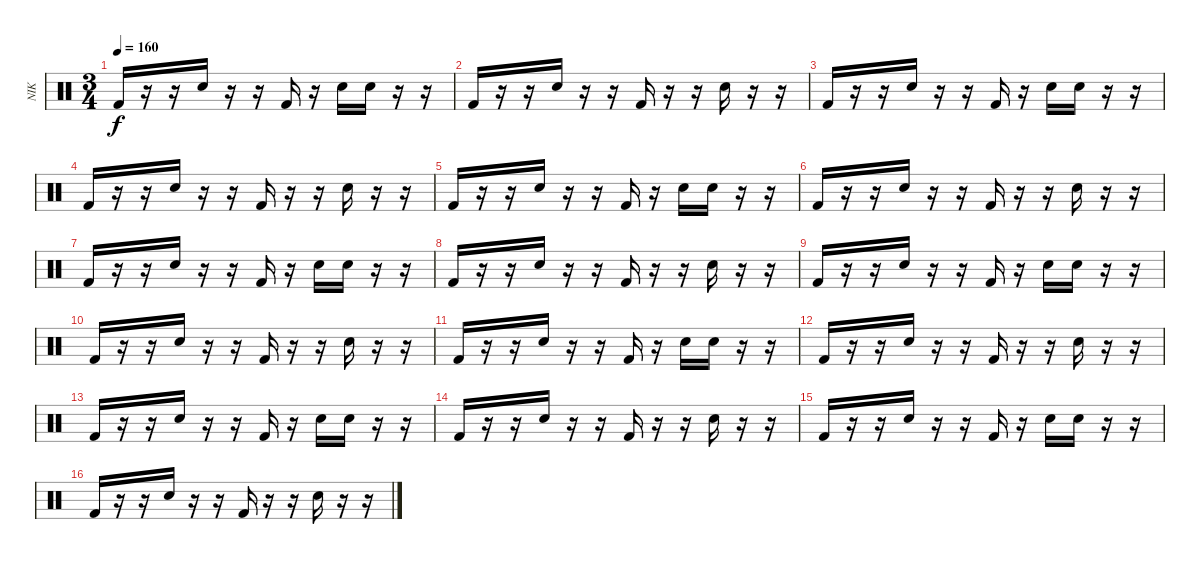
\track ("NIK" "NIK") {instrument percussion}
\staff {score}
\articulation defaults
\ts (3 4)
\tempo 160
\clef neutral
\ks c "Kick (hit) 2".16{dy f}
r.16 r.16 "Snare (hit) 2".16 r.16 r.16 "Kick (hit) 2".16 r.16 "Snare (hit) 2".16 "Snare (hit) 2".16 r.16 r.16 |
"Kick (hit) 2".16 r.16 r.16 "Snare (hit) 2".16 r.16 r.16 "Kick (hit) 2".16 r.16 r.16 "Snare (hit) 2".16 r.16 r.16 |
"Kick (hit) 2".16 r.16 r.16 "Snare (hit) 2".16 r.16 r.16 "Kick (hit) 2".16 r.16 "Snare (hit) 2".16 "Snare (hit) 2".16 r.16 r.16 |
"Kick (hit) 2".16 r.16 r.16 "Snare (hit) 2".16 r.16 r.16 "Kick (hit) 2".16 r.16 r.16 "Snare (hit) 2".16 r.16 r.16 |
"Kick (hit) 2".16 r.16 r.16 "Snare (hit) 2".16 r.16 r.16 "Kick (hit) 2".16 r.16 "Snare (hit) 2".16 "Snare (hit) 2".16 r.16 r.16 |
"Kick (hit) 2".16 r.16 r.16 "Snare (hit) 2".16 r.16 r.16 "Kick (hit) 2".16 r.16 r.16 "Snare (hit) 2".16 r.16 r.16 |
"Kick (hit) 2".16 r.16 r.16 "Snare (hit) 2".16 r.16 r.16 "Kick (hit) 2".16 r.16 "Snare (hit) 2".16 "Snare (hit) 2".16 r.16 r.16 |
"Kick (hit) 2".16 r.16 r.16 "Snare (hit) 2".16 r.16 r.16 "Kick (hit) 2".16 r.16 r.16 "Snare (hit) 2".16 r.16 r.16 |
"Kick (hit) 2".16 r.16 r.16 "Snare (hit) 2".16 r.16 r.16 "Kick (hit) 2".16 r.16 "Snare (hit) 2".16 "Snare (hit) 2".16 r.16 r.16 |
"Kick (hit) 2".16 r.16 r.16 "Snare (hit) 2".16 r.16 r.16 "Kick (hit) 2".16 r.16 r.16 "Snare (hit) 2".16 r.16 r.16 |
"Kick (hit) 2".16 r.16 r.16 "Snare (hit) 2".16 r.16 r.16 "Kick (hit) 2".16 r.16 "Snare (hit) 2".16 "Snare (hit) 2".16 r.16 r.16 |
"Kick (hit) 2".16 r.16 r.16 "Snare (hit) 2".16 r.16 r.16 "Kick (hit) 2".16 r.16 r.16 "Snare (hit) 2".16 r.16 r.16 |
"Kick (hit) 2".16 r.16 r.16 "Snare (hit) 2".16 r.16 r.16 "Kick (hit) 2".16 r.16 "Snare (hit) 2".16 "Snare (hit) 2".16 r.16 r.16 |
"Kick (hit) 2".16 r.16 r.16 "Snare (hit) 2".16 r.16 r.16 "Kick (hit) 2".16 r.16 r.16 "Snare (hit) 2".16 r.16 r.16 |
"Kick (hit) 2".16 r.16 r.16 "Snare (hit) 2".16 r.16 r.16 "Kick (hit) 2".16 r.16 "Snare (hit) 2".16 "Snare (hit) 2".16 r.16 r.16 |
"Kick (hit) 2".16 r.16 r.16 "Snare (hit) 2".16 r.16 r.16 "Kick (hit) 2".16 r.16 r.16 "Snare (hit) 2".16 r.16 r.16
